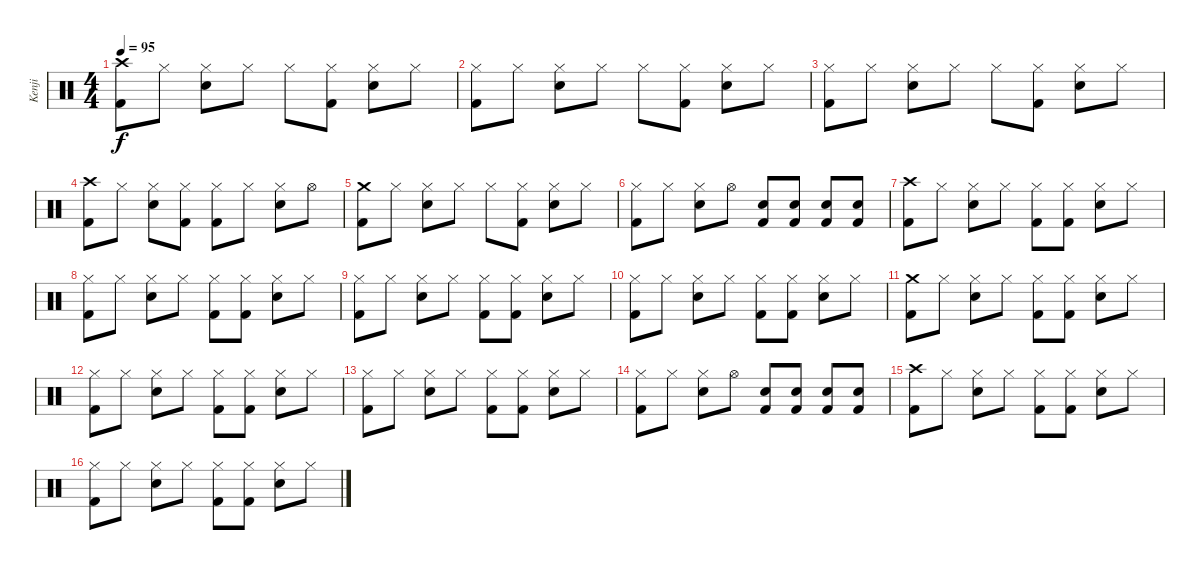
\track ("Kenji" "Kenji") {instrument percussion}
\staff {score}
\articulation defaults
\ts (4 4)
\tempo 95
\clef neutral
\ks c
("Crash high (hit)" "Kick (hit) 2").8{dy f} "Hi-Hat (closed)".8 ("Hi-Hat (closed)" "Electric Snare (hit)").8 "Hi-Hat (closed)".8 "Hi-Hat (closed)".8 ("Hi-Hat (closed)" "Kick (hit) 2").8 ("Hi-Hat (closed)" "Electric Snare (hit)").8 "Hi-Hat (closed)".8 |
("Hi-Hat (closed)" "Kick (hit) 2").8 "Hi-Hat (closed)".8 ("Hi-Hat (closed)" "Electric Snare (hit)").8 "Hi-Hat (closed)".8 "Hi-Hat (closed)".8 ("Hi-Hat (closed)" "Kick (hit) 2").8 ("Hi-Hat (closed)" "Electric Snare (hit)").8 "Hi-Hat (closed)".8 |
("Hi-Hat (closed)" "Kick (hit) 2").8 "Hi-Hat (closed)".8 ("Hi-Hat (closed)" "Electric Snare (hit)").8 "Hi-Hat (closed)".8 "Hi-Hat (closed)".8 ("Hi-Hat (closed)" "Kick (hit) 2").8 ("Hi-Hat (closed)" "Electric Snare (hit)").8 "Hi-Hat (closed)".8 |
("Crash high (hit)" "Kick (hit) 2").8 "Hi-Hat (closed)".8 ("Hi-Hat (closed)" "Electric Snare (hit)").8 ("Hi-Hat (closed)" "Kick (hit) 2").8 ("Hi-Hat (closed)" "Kick (hit) 2").8 "Hi-Hat (closed)".8 ("Hi-Hat (closed)" "Electric Snare (hit)").8 "Hi-Hat (open)".8 |
("Crash medium (hit)" "Kick (hit) 2").8 "Hi-Hat (closed)".8 ("Hi-Hat (closed)" "Electric Snare (hit)").8 "Hi-Hat (closed)".8 "Hi-Hat (closed)".8 ("Hi-Hat (closed)" "Kick (hit) 2").8 ("Hi-Hat (closed)" "Electric Snare (hit)").8 "Hi-Hat (closed)".8 |
("Hi-Hat (closed)" "Kick (hit) 2").8 "Hi-Hat (closed)".8 ("Hi-Hat (closed)" "Electric Snare (hit)").8 "Hi-Hat (open)".8 ("Electric Snare (hit)" "Kick (hit) 2").8 ("Electric Snare (hit)" "Kick (hit) 2").8 ("Electric Snare (hit)" "Kick (hit) 2").8 ("Electric Snare (hit)" "Kick (hit) 2").8 |
("Crash high (hit)" "Kick (hit) 2").8 "Hi-Hat (closed)".8 ("Hi-Hat (closed)" "Electric Snare (hit)").8 "Hi-Hat (closed)".8 ("Hi-Hat (closed)" "Kick (hit) 2").8 ("Hi-Hat (closed)" "Kick (hit) 2").8 ("Hi-Hat (closed)" "Electric Snare (hit)").8 "Hi-Hat (closed)".8 |
("Hi-Hat (closed)" "Kick (hit) 2").8 "Hi-Hat (closed)".8 ("Hi-Hat (closed)" "Electric Snare (hit)").8 "Hi-Hat (closed)".8 ("Hi-Hat (closed)" "Kick (hit) 2").8 ("Hi-Hat (closed)" "Kick (hit) 2").8 ("Hi-Hat (closed)" "Electric Snare (hit)").8 "Hi-Hat (closed)".8 |
("Hi-Hat (closed)" "Kick (hit) 2").8 "Hi-Hat (closed)".8 ("Hi-Hat (closed)" "Electric Snare (hit)").8 "Hi-Hat (closed)".8 ("Hi-Hat (closed)" "Kick (hit) 2").8 ("Hi-Hat (closed)" "Kick (hit) 2").8 ("Hi-Hat (closed)" "Electric Snare (hit)").8 "Hi-Hat (closed)".8 |
("Hi-Hat (closed)" "Kick (hit) 2").8 "Hi-Hat (closed)".8 ("Hi-Hat (closed)" "Electric Snare (hit)").8 "Hi-Hat (closed)".8 ("Hi-Hat (closed)" "Kick (hit) 2").8 ("Hi-Hat (closed)" "Kick (hit) 2").8 ("Hi-Hat (closed)" "Electric Snare (hit)").8 "Hi-Hat (closed)".8 |
("Crash medium (hit)" "Kick (hit) 2").8 "Hi-Hat (closed)".8 ("Hi-Hat (closed)" "Electric Snare (hit)").8 "Hi-Hat (closed)".8 ("Hi-Hat (closed)" "Kick (hit) 2").8 ("Hi-Hat (closed)" "Kick (hit) 2").8 ("Hi-Hat (closed)" "Electric Snare (hit)").8 "Hi-Hat (closed)".8 |
("Hi-Hat (closed)" "Kick (hit) 2").8 "Hi-Hat (closed)".8 ("Hi-Hat (closed)" "Electric Snare (hit)").8 "Hi-Hat (closed)".8 ("Hi-Hat (closed)" "Kick (hit) 2").8 ("Hi-Hat (closed)" "Kick (hit) 2").8 ("Hi-Hat (closed)" "Electric Snare (hit)").8 "Hi-Hat (closed)".8 |
("Hi-Hat (closed)" "Kick (hit) 2").8 "Hi-Hat (closed)".8 ("Hi-Hat (closed)" "Electric Snare (hit)").8 "Hi-Hat (closed)".8 ("Hi-Hat (closed)" "Kick (hit) 2").8 ("Hi-Hat (closed)" "Kick (hit) 2").8 ("Hi-Hat (closed)" "Electric Snare (hit)").8 "Hi-Hat (closed)".8 |
("Hi-Hat (closed)" "Kick (hit) 2").8 "Hi-Hat (closed)".8 ("Hi-Hat (closed)" "Electric Snare (hit)").8 "Hi-Hat (open)".8 ("Electric Snare (hit)" "Kick (hit) 2").8 ("Electric Snare (hit)" "Kick (hit) 2").8 ("Electric Snare (hit)" "Kick (hit) 2").8 ("Electric Snare (hit)" "Kick (hit) 2").8 |
("Crash high (hit)" "Kick (hit) 2").8 "Hi-Hat (closed)".8 ("Hi-Hat (closed)" "Electric Snare (hit)").8 "Hi-Hat (closed)".8 ("Hi-Hat (closed)" "Kick (hit) 2").8 ("Hi-Hat (closed)" "Kick (hit) 2").8 ("Hi-Hat (closed)" "Electric Snare (hit)").8 "Hi-Hat (closed)".8 |
("Hi-Hat (closed)" "Kick (hit) 2").8 "Hi-Hat (closed)".8 ("Hi-Hat (closed)" "Electric Snare (hit)").8 "Hi-Hat (closed)".8 ("Hi-Hat (closed)" "Kick (hit) 2").8 ("Hi-Hat (closed)" "Kick (hit) 2").8 ("Hi-Hat (closed)" "Electric Snare (hit)").8 "Hi-Hat (closed)".8
